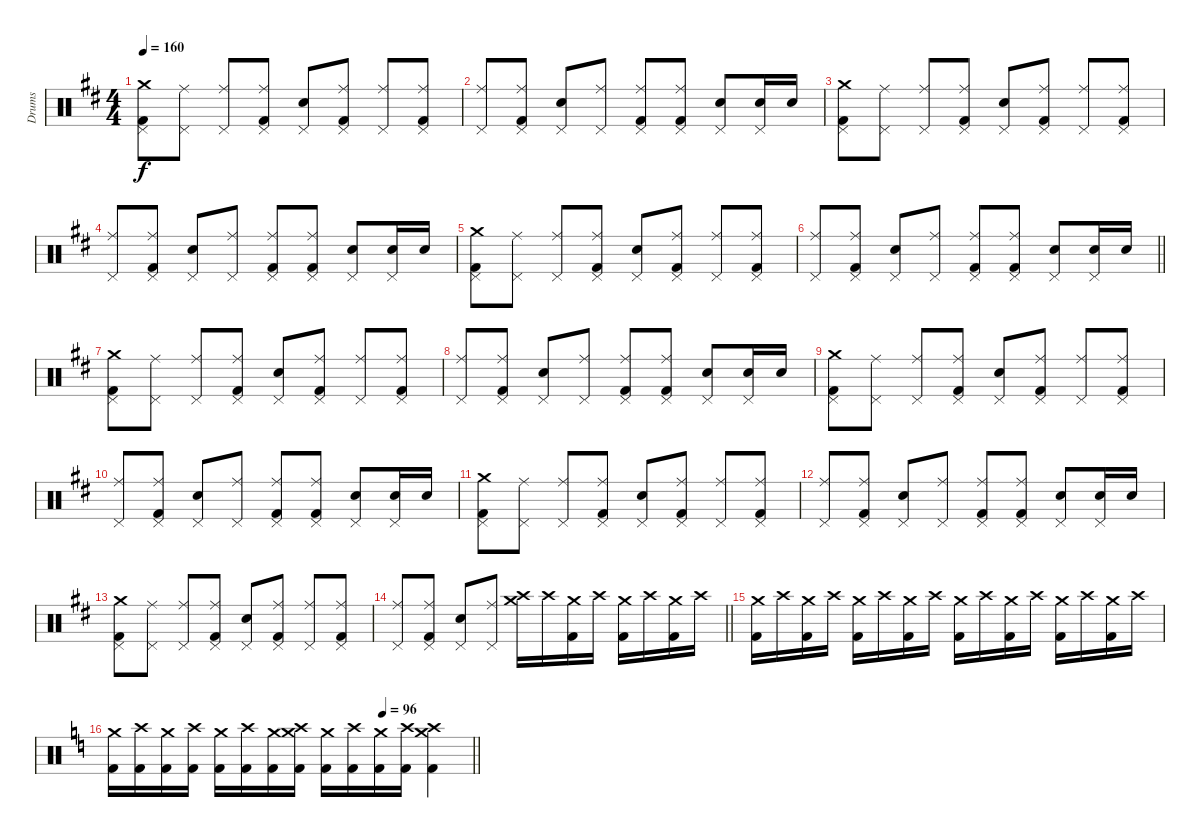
\track ("Drums" "Drums") {instrument percussion}
\staff {score}
\articulation defaults
\ts (4 4)
\tempo 160
\clef neutral
\ks d
("Crash medium (hit)" "Pedal Hi-Hat (hit)" "Kick (hit) 2").8{dy f} ("Ride (middle)" "Pedal Hi-Hat (hit)").8 ("Ride (middle)" "Pedal Hi-Hat (hit)").8 ("Ride (middle)" "Pedal Hi-Hat (hit)" "Kick (hit) 2").8 ("Electric Snare (hit)" "Pedal Hi-Hat (hit)").8 ("Ride (middle)" "Pedal Hi-Hat (hit)" "Kick (hit) 2").8 ("Ride (middle)" "Pedal Hi-Hat (hit)").8 ("Ride (middle)" "Pedal Hi-Hat (hit)" "Kick (hit) 2").8 |
("Ride (middle)" "Pedal Hi-Hat (hit)").8 ("Ride (middle)" "Pedal Hi-Hat (hit)" "Kick (hit) 2").8 ("Electric Snare (hit)" "Pedal Hi-Hat (hit)").8 ("Ride (middle)" "Pedal Hi-Hat (hit)").8 ("Ride (middle)" "Pedal Hi-Hat (hit)" "Kick (hit) 2").8 ("Ride (middle)" "Pedal Hi-Hat (hit)" "Kick (hit) 2").8 ("Electric Snare (hit)" "Pedal Hi-Hat (hit)").8 ("Snare (hit) 2" "Pedal Hi-Hat (hit)").16 "Snare (hit) 2".16 |
("Crash medium (hit)" "Pedal Hi-Hat (hit)" "Kick (hit) 2").8 ("Ride (middle)" "Pedal Hi-Hat (hit)").8 ("Ride (middle)" "Pedal Hi-Hat (hit)").8 ("Ride (middle)" "Pedal Hi-Hat (hit)" "Kick (hit) 2").8 ("Electric Snare (hit)" "Pedal Hi-Hat (hit)").8 ("Ride (middle)" "Pedal Hi-Hat (hit)" "Kick (hit) 2").8 ("Ride (middle)" "Pedal Hi-Hat (hit)").8 ("Ride (middle)" "Pedal Hi-Hat (hit)" "Kick (hit) 2").8 |
("Ride (middle)" "Pedal Hi-Hat (hit)").8 ("Ride (middle)" "Pedal Hi-Hat (hit)" "Kick (hit) 2").8 ("Electric Snare (hit)" "Pedal Hi-Hat (hit)").8 ("Ride (middle)" "Pedal Hi-Hat (hit)").8 ("Ride (middle)" "Pedal Hi-Hat (hit)" "Kick (hit) 2").8 ("Ride (middle)" "Pedal Hi-Hat (hit)" "Kick (hit) 2").8 ("Electric Snare (hit)" "Pedal Hi-Hat (hit)").8 ("Snare (hit) 2" "Pedal Hi-Hat (hit)").16 "Snare (hit) 2".16 |
("Crash medium (hit)" "Pedal Hi-Hat (hit)" "Kick (hit) 2").8 ("Ride (middle)" "Pedal Hi-Hat (hit)").8 ("Ride (middle)" "Pedal Hi-Hat (hit)").8 ("Ride (middle)" "Pedal Hi-Hat (hit)" "Kick (hit) 2").8 ("Electric Snare (hit)" "Pedal Hi-Hat (hit)").8 ("Ride (middle)" "Pedal Hi-Hat (hit)" "Kick (hit) 2").8 ("Ride (middle)" "Pedal Hi-Hat (hit)").8 ("Ride (middle)" "Pedal Hi-Hat (hit)" "Kick (hit) 2").8 |
\barLineRight lightlight
("Ride (middle)" "Pedal Hi-Hat (hit)").8 ("Ride (middle)" "Pedal Hi-Hat (hit)" "Kick (hit) 2").8 ("Electric Snare (hit)" "Pedal Hi-Hat (hit)").8 ("Ride (middle)" "Pedal Hi-Hat (hit)").8 ("Ride (middle)" "Pedal Hi-Hat (hit)" "Kick (hit) 2").8 ("Ride (middle)" "Pedal Hi-Hat (hit)" "Kick (hit) 2").8 ("Electric Snare (hit)" "Pedal Hi-Hat (hit)").8 ("Snare (hit) 2" "Pedal Hi-Hat (hit)").16 "Snare (hit) 2".16 |
("Crash medium (hit)" "Pedal Hi-Hat (hit)" "Kick (hit) 2").8 ("Ride (middle)" "Pedal Hi-Hat (hit)").8 ("Ride (middle)" "Pedal Hi-Hat (hit)").8 ("Ride (middle)" "Pedal Hi-Hat (hit)" "Kick (hit) 2").8 ("Electric Snare (hit)" "Pedal Hi-Hat (hit)").8 ("Ride (middle)" "Pedal Hi-Hat (hit)" "Kick (hit) 2").8 ("Ride (middle)" "Pedal Hi-Hat (hit)").8 ("Ride (middle)" "Pedal Hi-Hat (hit)" "Kick (hit) 2").8 |
("Ride (middle)" "Pedal Hi-Hat (hit)").8 ("Ride (middle)" "Pedal Hi-Hat (hit)" "Kick (hit) 2").8 ("Electric Snare (hit)" "Pedal Hi-Hat (hit)").8 ("Ride (middle)" "Pedal Hi-Hat (hit)").8 ("Ride (middle)" "Pedal Hi-Hat (hit)" "Kick (hit) 2").8 ("Ride (middle)" "Pedal Hi-Hat (hit)" "Kick (hit) 2").8 ("Electric Snare (hit)" "Pedal Hi-Hat (hit)").8 ("Snare (hit) 2" "Pedal Hi-Hat (hit)").16 "Snare (hit) 2".16 |
("Crash medium (hit)" "Pedal Hi-Hat (hit)" "Kick (hit) 2").8 ("Ride (middle)" "Pedal Hi-Hat (hit)").8 ("Ride (middle)" "Pedal Hi-Hat (hit)").8 ("Ride (middle)" "Pedal Hi-Hat (hit)" "Kick (hit) 2").8 ("Electric Snare (hit)" "Pedal Hi-Hat (hit)").8 ("Ride (middle)" "Pedal Hi-Hat (hit)" "Kick (hit) 2").8 ("Ride (middle)" "Pedal Hi-Hat (hit)").8 ("Ride (middle)" "Pedal Hi-Hat (hit)" "Kick (hit) 2").8 |
("Ride (middle)" "Pedal Hi-Hat (hit)").8 ("Ride (middle)" "Pedal Hi-Hat (hit)" "Kick (hit) 2").8 ("Electric Snare (hit)" "Pedal Hi-Hat (hit)").8 ("Ride (middle)" "Pedal Hi-Hat (hit)").8 ("Ride (middle)" "Pedal Hi-Hat (hit)" "Kick (hit) 2").8 ("Ride (middle)" "Pedal Hi-Hat (hit)" "Kick (hit) 2").8 ("Electric Snare (hit)" "Pedal Hi-Hat (hit)").8 ("Snare (hit) 2" "Pedal Hi-Hat (hit)").16 "Snare (hit) 2".16 |
("Crash medium (hit)" "Pedal Hi-Hat (hit)" "Kick (hit) 2").8 ("Ride (middle)" "Pedal Hi-Hat (hit)").8 ("Ride (middle)" "Pedal Hi-Hat (hit)").8 ("Ride (middle)" "Pedal Hi-Hat (hit)" "Kick (hit) 2").8 ("Electric Snare (hit)" "Pedal Hi-Hat (hit)").8 ("Ride (middle)" "Pedal Hi-Hat (hit)" "Kick (hit) 2").8 ("Ride (middle)" "Pedal Hi-Hat (hit)").8 ("Ride (middle)" "Pedal Hi-Hat (hit)" "Kick (hit) 2").8 |
("Ride (middle)" "Pedal Hi-Hat (hit)").8 ("Ride (middle)" "Pedal Hi-Hat (hit)" "Kick (hit) 2").8 ("Electric Snare (hit)" "Pedal Hi-Hat (hit)").8 ("Ride (middle)" "Pedal Hi-Hat (hit)").8 ("Ride (middle)" "Pedal Hi-Hat (hit)" "Kick (hit) 2").8 ("Ride (middle)" "Pedal Hi-Hat (hit)" "Kick (hit) 2").8 ("Electric Snare (hit)" "Pedal Hi-Hat (hit)").8 ("Snare (hit) 2" "Pedal Hi-Hat (hit)").16 "Snare (hit) 2".16 |
("Crash medium (hit)" "Pedal Hi-Hat (hit)" "Kick (hit) 2").8 ("Ride (middle)" "Pedal Hi-Hat (hit)").8 ("Ride (middle)" "Pedal Hi-Hat (hit)").8 ("Ride (middle)" "Pedal Hi-Hat (hit)" "Kick (hit) 2").8 ("Electric Snare (hit)" "Pedal Hi-Hat (hit)").8 ("Ride (middle)" "Pedal Hi-Hat (hit)" "Kick (hit) 2").8 ("Ride (middle)" "Pedal Hi-Hat (hit)").8 ("Ride (middle)" "Pedal Hi-Hat (hit)" "Kick (hit) 2").8 |
\barLineRight lightlight
("Ride (middle)" "Pedal Hi-Hat (hit)").8 ("Ride (middle)" "Pedal Hi-Hat (hit)" "Kick (hit) 2").8 ("Electric Snare (hit)" "Pedal Hi-Hat (hit)").8 ("Ride (middle)" "Pedal Hi-Hat (hit)").8 ("Crash medium (hit)" "Crash high (hit)").16 "Crash high (hit)".16 ("Crash medium (hit)" "Kick (hit) 2").16 "Crash high (hit)".16 ("Crash medium (hit)" "Kick (hit) 2").16 "Crash high (hit)".16 ("Crash medium (hit)" "Kick (hit) 2").16 "Crash high (hit)".16 |
("Crash medium (hit)" "Kick (hit) 2").16 "Crash high (hit)".16 ("Crash medium (hit)" "Kick (hit) 2").16 "Crash high (hit)".16 ("Crash medium (hit)" "Kick (hit) 2").16 "Crash high (hit)".16 ("Crash medium (hit)" "Kick (hit) 2").16 "Crash high (hit)".16 ("Crash medium (hit)" "Kick (hit) 2").16 "Crash high (hit)".16 ("Crash medium (hit)" "Kick (hit) 2").16 "Crash high (hit)".16 ("Crash medium (hit)" "Kick (hit) 2").16 "Crash high (hit)".16 ("Crash medium (hit)" "Kick (hit) 2").16 "Crash high (hit)".16 |
\tempo (96 0.75)
\barLineRight lightlight
\ks c
("Crash medium (hit)" "Kick (hit) 2").16 ("Crash high (hit)" "Kick (hit) 2").16 ("Crash medium (hit)" "Kick (hit) 2").16 ("Crash high (hit)" "Kick (hit) 2").16 ("Crash medium (hit)" "Kick (hit) 2").16 ("Crash high (hit)" "Kick (hit) 2").16 ("Crash medium (hit)" "Kick (hit) 2").16 ("Crash high (hit)" "Crash medium (hit)" "Kick (hit) 2").16 ("Crash medium (hit)" "Kick (hit) 2").16 ("Crash high (hit)" "Kick (hit) 2").16 ("Crash medium (hit)" "Kick (hit) 2").16 ("Crash high (hit)" "Kick (hit) 2").16 ("Crash medium (hit)" "Crash high (hit)" "Kick (hit) 2").4
